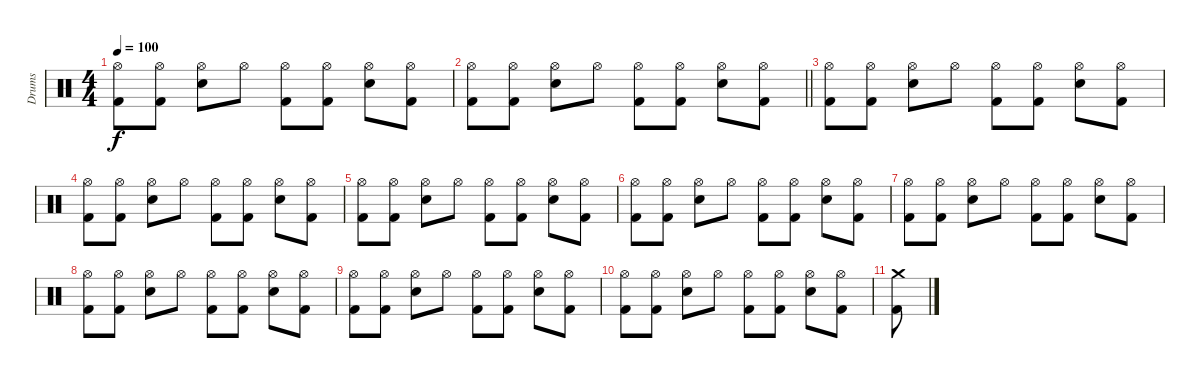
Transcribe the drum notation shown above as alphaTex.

\track ("Drums" "Drums") {instrument percussion}
\staff {score}
\articulation defaults
\ts (4 4)
\tempo 100
\clef neutral
\ks c
("Hi-Hat (open)" "Kick (hit) 2").8{dy f} ("Hi-Hat (open)" "Kick (hit) 2").8 ("Hi-Hat (open)" "Snare (hit) 2").8 "Hi-Hat (open)".8 ("Hi-Hat (open)" "Kick (hit) 2").8 ("Hi-Hat (open)" "Kick (hit) 2").8 ("Hi-Hat (open)" "Snare (hit) 2").8 ("Hi-Hat (open)" "Kick (hit) 2").8 |
\barLineRight lightlight
("Hi-Hat (open)" "Kick (hit) 2").8 ("Hi-Hat (open)" "Kick (hit) 2").8 ("Hi-Hat (open)" "Snare (hit) 2").8 "Hi-Hat (open)".8 ("Hi-Hat (open)" "Kick (hit) 2").8 ("Hi-Hat (open)" "Kick (hit) 2").8 ("Hi-Hat (open)" "Snare (hit) 2").8 ("Hi-Hat (open)" "Kick (hit) 2").8 |
("Hi-Hat (open)" "Kick (hit) 2").8 ("Hi-Hat (open)" "Kick (hit) 2").8 ("Hi-Hat (open)" "Snare (hit) 2").8 "Hi-Hat (open)".8 ("Hi-Hat (open)" "Kick (hit) 2").8 ("Hi-Hat (open)" "Kick (hit) 2").8 ("Hi-Hat (open)" "Snare (hit) 2").8 ("Hi-Hat (open)" "Kick (hit) 2").8 |
("Hi-Hat (open)" "Kick (hit) 2").8 ("Hi-Hat (open)" "Kick (hit) 2").8 ("Hi-Hat (open)" "Snare (hit) 2").8 "Hi-Hat (open)".8 ("Hi-Hat (open)" "Kick (hit) 2").8 ("Hi-Hat (open)" "Kick (hit) 2").8 ("Hi-Hat (open)" "Snare (hit) 2").8 ("Hi-Hat (open)" "Kick (hit) 2").8 |
("Hi-Hat (open)" "Kick (hit) 2").8 ("Hi-Hat (open)" "Kick (hit) 2").8 ("Hi-Hat (open)" "Snare (hit) 2").8 "Hi-Hat (open)".8 ("Hi-Hat (open)" "Kick (hit) 2").8 ("Hi-Hat (open)" "Kick (hit) 2").8 ("Hi-Hat (open)" "Snare (hit) 2").8 ("Hi-Hat (open)" "Kick (hit) 2").8 |
("Hi-Hat (open)" "Kick (hit) 2").8 ("Hi-Hat (open)" "Kick (hit) 2").8 ("Hi-Hat (open)" "Snare (hit) 2").8 "Hi-Hat (open)".8 ("Hi-Hat (open)" "Kick (hit) 2").8 ("Hi-Hat (open)" "Kick (hit) 2").8 ("Hi-Hat (open)" "Snare (hit) 2").8 ("Hi-Hat (open)" "Kick (hit) 2").8 |
("Hi-Hat (open)" "Kick (hit) 2").8 ("Hi-Hat (open)" "Kick (hit) 2").8 ("Hi-Hat (open)" "Snare (hit) 2").8 "Hi-Hat (open)".8 ("Hi-Hat (open)" "Kick (hit) 2").8 ("Hi-Hat (open)" "Kick (hit) 2").8 ("Hi-Hat (open)" "Snare (hit) 2").8 ("Hi-Hat (open)" "Kick (hit) 2").8 |
("Hi-Hat (open)" "Kick (hit) 2").8 ("Hi-Hat (open)" "Kick (hit) 2").8 ("Hi-Hat (open)" "Snare (hit) 2").8 "Hi-Hat (open)".8 ("Hi-Hat (open)" "Kick (hit) 2").8 ("Hi-Hat (open)" "Kick (hit) 2").8 ("Hi-Hat (open)" "Snare (hit) 2").8 ("Hi-Hat (open)" "Kick (hit) 2").8 |
("Hi-Hat (open)" "Kick (hit) 2").8 ("Hi-Hat (open)" "Kick (hit) 2").8 ("Hi-Hat (open)" "Snare (hit) 2").8 "Hi-Hat (open)".8 ("Hi-Hat (open)" "Kick (hit) 2").8 ("Hi-Hat (open)" "Kick (hit) 2").8 ("Hi-Hat (open)" "Snare (hit) 2").8 ("Hi-Hat (open)" "Kick (hit) 2").8 |
("Hi-Hat (open)" "Kick (hit) 2").8 ("Hi-Hat (open)" "Kick (hit) 2").8 ("Hi-Hat (open)" "Snare (hit) 2").8 "Hi-Hat (open)".8 ("Hi-Hat (open)" "Kick (hit) 2").8 ("Hi-Hat (open)" "Kick (hit) 2").8 ("Hi-Hat (open)" "Snare (hit) 2").8 ("Hi-Hat (open)" "Kick (hit) 2").8 |
("Crash medium (hit)" "Kick (hit) 2").8
